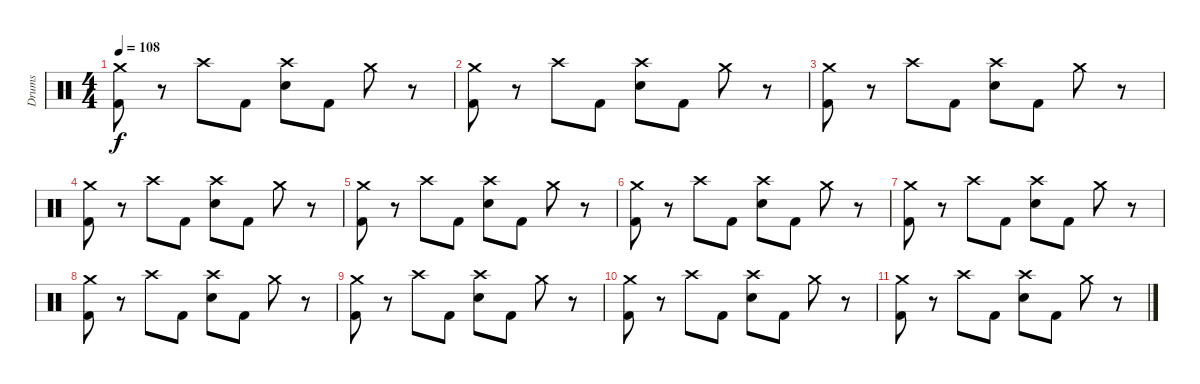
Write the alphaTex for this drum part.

\track ("Drums" "Drums") {instrument percussion}
\staff {score}
\articulation defaults
\ts (4 4)
\tempo 108
\clef neutral
\ks c
("Crash medium (hit)" "Kick (hit) 2").8{dy f} r.8 "Crash high (hit)".8 "Kick (hit) 2".8 ("Crash high (hit)" "Electric Snare (hit)").8 "Kick (hit) 2".8 "Crash medium (hit)".8 r.8 |
("Crash medium (hit)" "Kick (hit) 2").8 r.8 "Crash high (hit)".8 "Kick (hit) 2".8 ("Crash high (hit)" "Electric Snare (hit)").8 "Kick (hit) 2".8 "Crash medium (hit)".8 r.8 |
("Crash medium (hit)" "Kick (hit) 2").8 r.8 "Crash high (hit)".8 "Kick (hit) 2".8 ("Crash high (hit)" "Electric Snare (hit)").8 "Kick (hit) 2".8 "Crash medium (hit)".8 r.8 |
("Crash medium (hit)" "Kick (hit) 2").8 r.8 "Crash high (hit)".8 "Kick (hit) 2".8 ("Crash high (hit)" "Electric Snare (hit)").8 "Kick (hit) 2".8 "Crash medium (hit)".8 r.8 |
("Crash medium (hit)" "Kick (hit) 2").8 r.8 "Crash high (hit)".8 "Kick (hit) 2".8 ("Crash high (hit)" "Electric Snare (hit)").8 "Kick (hit) 2".8 "Crash medium (hit)".8 r.8 |
("Crash medium (hit)" "Kick (hit) 2").8 r.8 "Crash high (hit)".8 "Kick (hit) 2".8 ("Crash high (hit)" "Electric Snare (hit)").8 "Kick (hit) 2".8 "Crash medium (hit)".8 r.8 |
("Crash medium (hit)" "Kick (hit) 2").8 r.8 "Crash high (hit)".8 "Kick (hit) 2".8 ("Crash high (hit)" "Electric Snare (hit)").8 "Kick (hit) 2".8 "Crash medium (hit)".8 r.8 |
("Crash medium (hit)" "Kick (hit) 2").8 r.8 "Crash high (hit)".8 "Kick (hit) 2".8 ("Crash high (hit)" "Electric Snare (hit)").8 "Kick (hit) 2".8 "Crash medium (hit)".8 r.8 |
("Crash medium (hit)" "Kick (hit) 2").8 r.8 "Crash high (hit)".8 "Kick (hit) 2".8 ("Crash high (hit)" "Electric Snare (hit)").8 "Kick (hit) 2".8 "Crash medium (hit)".8 r.8 |
("Crash medium (hit)" "Kick (hit) 2").8 r.8 "Crash high (hit)".8 "Kick (hit) 2".8 ("Crash high (hit)" "Electric Snare (hit)").8 "Kick (hit) 2".8 "Crash medium (hit)".8 r.8 |
("Crash medium (hit)" "Kick (hit) 2").8 r.8 "Crash high (hit)".8 "Kick (hit) 2".8 ("Crash high (hit)" "Electric Snare (hit)").8 "Kick (hit) 2".8 "Crash medium (hit)".8 r.8
